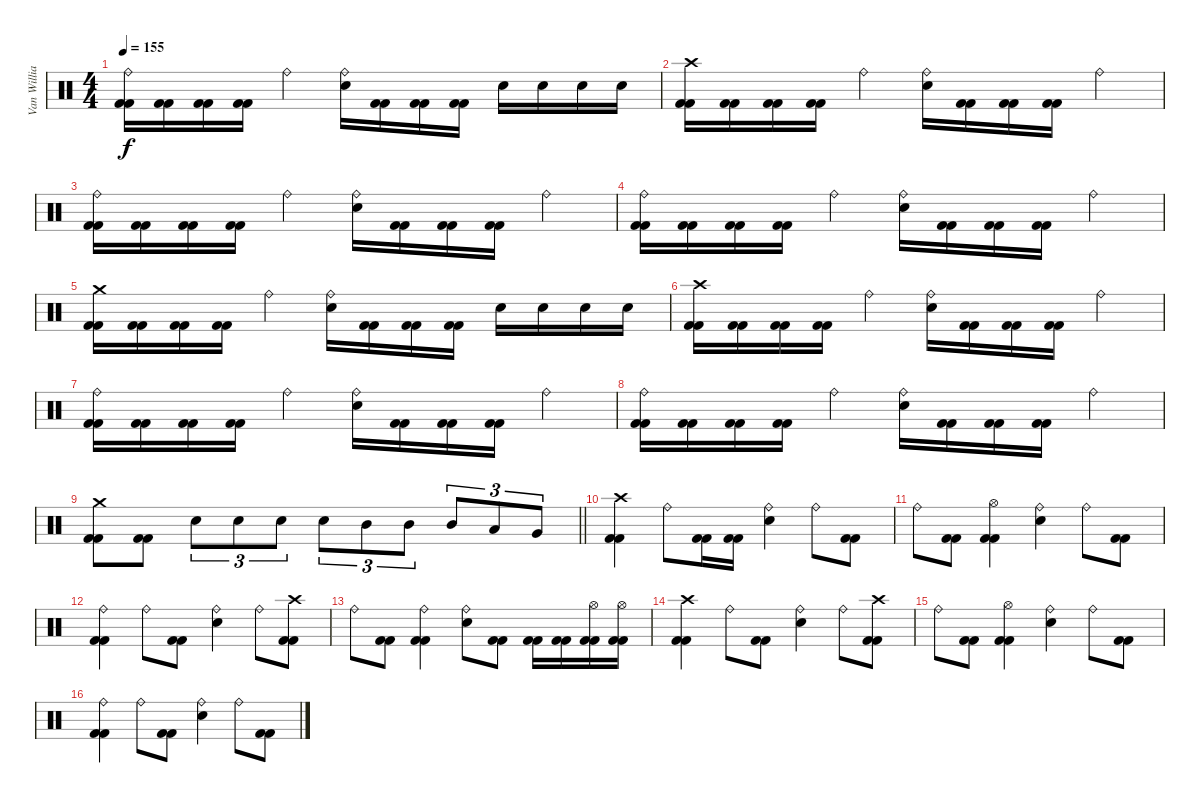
\track ("Van Williams" "Van Willia") {instrument percussion}
\staff {score}
\articulation defaults
\ts (4 4)
\tempo 155
\clef neutral
\ks c
("Ride (bell)" "Kick (hit) 2" "Kick (hit) 2").16{dy f} ("Kick (hit) 2" "Kick (hit) 2").16 ("Kick (hit) 2" "Kick (hit) 2").16 ("Kick (hit) 2" "Kick (hit) 2").16 "Ride (bell)".4 ("Ride (bell)" "Electric Snare (hit)").16 ("Kick (hit) 2" "Kick (hit) 2").16 ("Kick (hit) 2" "Kick (hit) 2").16 ("Kick (hit) 2" "Kick (hit) 2").16 "Electric Snare (hit)".16 "Electric Snare (hit)".16 "Electric Snare (hit)".16 "Electric Snare (hit)".16 |
("Crash high (hit)" "Kick (hit) 2" "Kick (hit) 2").16 ("Kick (hit) 2" "Kick (hit) 2").16 ("Kick (hit) 2" "Kick (hit) 2").16 ("Kick (hit) 2" "Kick (hit) 2").16 "Ride (bell)".4 ("Ride (bell)" "Electric Snare (hit)").16 ("Kick (hit) 2" "Kick (hit) 2").16 ("Kick (hit) 2" "Kick (hit) 2").16 ("Kick (hit) 2" "Kick (hit) 2").16 "Ride (bell)".4 |
("Ride (bell)" "Kick (hit) 2" "Kick (hit) 2").16 ("Kick (hit) 2" "Kick (hit) 2").16 ("Kick (hit) 2" "Kick (hit) 2").16 ("Kick (hit) 2" "Kick (hit) 2").16 "Ride (bell)".4 ("Ride (bell)" "Electric Snare (hit)").16 ("Kick (hit) 2" "Kick (hit) 2").16 ("Kick (hit) 2" "Kick (hit) 2").16 ("Kick (hit) 2" "Kick (hit) 2").16 "Ride (bell)".4 |
("Ride (bell)" "Kick (hit) 2" "Kick (hit) 2").16 ("Kick (hit) 2" "Kick (hit) 2").16 ("Kick (hit) 2" "Kick (hit) 2").16 ("Kick (hit) 2" "Kick (hit) 2").16 "Ride (bell)".4 ("Ride (bell)" "Electric Snare (hit)").16 ("Kick (hit) 2" "Kick (hit) 2").16 ("Kick (hit) 2" "Kick (hit) 2").16 ("Kick (hit) 2" "Kick (hit) 2").16 "Ride (bell)".4 |
("Crash medium (hit)" "Kick (hit) 2" "Kick (hit) 2").16 ("Kick (hit) 2" "Kick (hit) 2").16 ("Kick (hit) 2" "Kick (hit) 2").16 ("Kick (hit) 2" "Kick (hit) 2").16 "Ride (bell)".4 ("Ride (bell)" "Electric Snare (hit)").16 ("Kick (hit) 2" "Kick (hit) 2").16 ("Kick (hit) 2" "Kick (hit) 2").16 ("Kick (hit) 2" "Kick (hit) 2").16 "Electric Snare (hit)".16 "Electric Snare (hit)".16 "Electric Snare (hit)".16 "Electric Snare (hit)".16 |
("Crash high (hit)" "Kick (hit) 2" "Kick (hit) 2").16 ("Kick (hit) 2" "Kick (hit) 2").16 ("Kick (hit) 2" "Kick (hit) 2").16 ("Kick (hit) 2" "Kick (hit) 2").16 "Ride (bell)".4 ("Ride (bell)" "Electric Snare (hit)").16 ("Kick (hit) 2" "Kick (hit) 2").16 ("Kick (hit) 2" "Kick (hit) 2").16 ("Kick (hit) 2" "Kick (hit) 2").16 "Ride (bell)".4 |
("Ride (bell)" "Kick (hit) 2" "Kick (hit) 2").16 ("Kick (hit) 2" "Kick (hit) 2").16 ("Kick (hit) 2" "Kick (hit) 2").16 ("Kick (hit) 2" "Kick (hit) 2").16 "Ride (bell)".4 ("Ride (bell)" "Electric Snare (hit)").16 ("Kick (hit) 2" "Kick (hit) 2").16 ("Kick (hit) 2" "Kick (hit) 2").16 ("Kick (hit) 2" "Kick (hit) 2").16 "Ride (bell)".4 |
("Ride (bell)" "Kick (hit) 2" "Kick (hit) 2").16 ("Kick (hit) 2" "Kick (hit) 2").16 ("Kick (hit) 2" "Kick (hit) 2").16 ("Kick (hit) 2" "Kick (hit) 2").16 "Ride (bell)".4 ("Ride (bell)" "Electric Snare (hit)").16 ("Kick (hit) 2" "Kick (hit) 2").16 ("Kick (hit) 2" "Kick (hit) 2").16 ("Kick (hit) 2" "Kick (hit) 2").16 "Ride (bell)".4 |
\barLineRight lightlight
("Crash medium (hit)" "Kick (hit) 2" "Kick (hit) 2").8 ("Kick (hit) 2" "Kick (hit) 2").8 "Electric Snare (hit)".8{tu (3 2)} "Electric Snare (hit)".8{tu (3 2)} "Electric Snare (hit)".8{tu (3 2)} "Electric Snare (hit)".8{tu (3 2)} "Mid Tom (hit)".8{tu (3 2)} "Mid Tom (hit)".8{tu (3 2)} "Mid Tom (hit)".8{tu (3 2)} "Low Tom (hit)".8{tu (3 2)} "Very Low Tom (hit)".8{tu (3 2)} |
("Crash high (hit)" "Kick (hit) 2" "Kick (hit) 2").4 "Ride (bell)".8 ("Kick (hit) 2" "Kick (hit) 2").16 ("Kick (hit) 2" "Kick (hit) 2").16 ("Ride (bell)" "Electric Snare (hit)").4 "Ride (bell)".8 ("Kick (hit) 2" "Kick (hit) 2").8 |
"Ride (bell)".8 ("Kick (hit) 2" "Kick (hit) 2").8 ("Hi-Hat (open)" "Kick (hit) 2" "Kick (hit) 2").4 ("Ride (bell)" "Electric Snare (hit)").4 "Ride (bell)".8 ("Kick (hit) 2" "Kick (hit) 2").8 |
("Ride (bell)" "Kick (hit) 2" "Kick (hit) 2").4 "Ride (bell)".8 ("Kick (hit) 2" "Kick (hit) 2").8 ("Ride (bell)" "Electric Snare (hit)").4 "Ride (bell)".8 ("Crash high (hit)" "Kick (hit) 2" "Kick (hit) 2").8 |
"Ride (bell)".8 ("Kick (hit) 2" "Kick (hit) 2").8 ("Ride (bell)" "Kick (hit) 2" "Kick (hit) 2").4 ("Ride (bell)" "Electric Snare (hit)").8 ("Kick (hit) 2" "Kick (hit) 2").8 ("Kick (hit) 2" "Kick (hit) 2").16 ("Kick (hit) 2" "Kick (hit) 2").16 ("Hi-Hat (open)" "Kick (hit) 2" "Kick (hit) 2").16 ("Hi-Hat (open)" "Kick (hit) 2" "Kick (hit) 2").16 |
("Crash high (hit)" "Kick (hit) 2" "Kick (hit) 2").4 "Ride (bell)".8 ("Kick (hit) 2" "Kick (hit) 2").8 ("Ride (bell)" "Electric Snare (hit)").4 "Ride (bell)".8 ("Crash high (hit)" "Kick (hit) 2" "Kick (hit) 2").8 |
"Ride (bell)".8 ("Kick (hit) 2" "Kick (hit) 2").8 ("Hi-Hat (open)" "Kick (hit) 2" "Kick (hit) 2").4 ("Ride (bell)" "Electric Snare (hit)").4 "Ride (bell)".8 ("Kick (hit) 2" "Kick (hit) 2").8 |
("Ride (bell)" "Kick (hit) 2" "Kick (hit) 2").4 "Ride (bell)".8 ("Kick (hit) 2" "Kick (hit) 2").8 ("Ride (bell)" "Electric Snare (hit)").4 "Ride (bell)".8 ("Kick (hit) 2" "Kick (hit) 2").8
